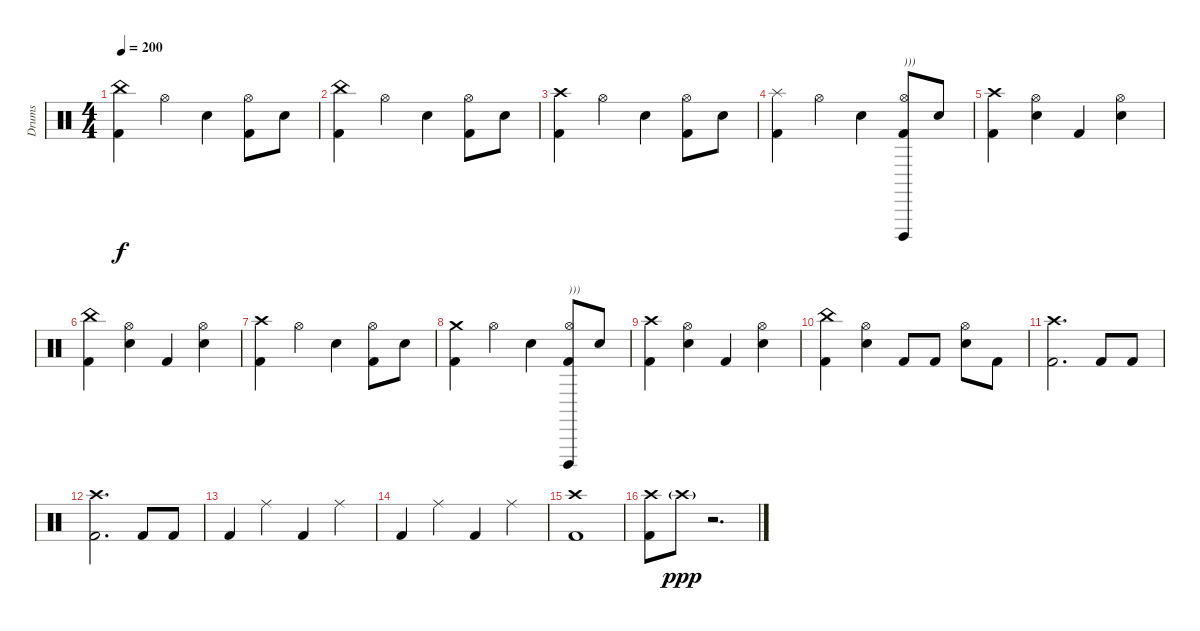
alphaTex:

\track ("Drums" "Drums") {instrument percussion}
\staff {score}
\articulation defaults
\ts (4 4)
\tempo 200
\clef neutral
\ks c
("China (hit)" "Kick (hit) 2").4{dy f} "Hi-Hat (open)".4 "Electric Snare (hit)".4 ("Hi-Hat (open)" "Kick (hit) 2").8 "Electric Snare (hit)".8 |
("China (hit)" "Kick (hit) 2").4 "Hi-Hat (open)".4 "Electric Snare (hit)".4 ("Hi-Hat (open)" "Kick (hit) 2").8 "Electric Snare (hit)".8 |
("Crash high (hit)" "Kick (hit) 2").4 "Hi-Hat (open)".4 "Electric Snare (hit)".4 ("Hi-Hat (open)" "Kick (hit) 2").8 "Electric Snare (hit)".8 |
("Splash (hit)" "Kick (hit) 2").4 "Hi-Hat (open)".4 "Electric Snare (hit)".4 ("Hi-Hat (open)" "Cuica (open)" "Kick (hit) 2").8{txt ")))"} "Electric Snare (hit)".8 |
("Crash high (hit)" "Kick (hit) 2").4 ("Hi-Hat (open)" "Electric Snare (hit)").4 "Kick (hit) 2".4 ("Hi-Hat (open)" "Electric Snare (hit)").4 |
("China (hit)" "Kick (hit) 2").4 ("Hi-Hat (open)" "Electric Snare (hit)").4 "Kick (hit) 2".4 ("Hi-Hat (open)" "Electric Snare (hit)").4 |
("Crash high (hit)" "Kick (hit) 2").4 "Hi-Hat (open)".4 "Electric Snare (hit)".4 ("Hi-Hat (open)" "Kick (hit) 2").8 "Electric Snare (hit)".8 |
("Crash medium (hit)" "Kick (hit) 2").4 "Hi-Hat (open)".4 "Electric Snare (hit)".4 ("Hi-Hat (open)" "Cuica (open)" "Kick (hit) 2").8{txt ")))"} "Electric Snare (hit)".8 |
("Crash high (hit)" "Kick (hit) 2").4 ("Hi-Hat (open)" "Electric Snare (hit)").4 "Kick (hit) 2".4 ("Hi-Hat (open)" "Electric Snare (hit)").4 |
("China (hit)" "Kick (hit) 2").4 ("Hi-Hat (open)" "Electric Snare (hit)").4 "Kick (hit) 2".8 "Kick (hit) 2".8 ("Hi-Hat (open)" "Electric Snare (hit)").8 "Kick (hit) 2".8 |
("Crash high (hit)" "Kick (hit) 2").2{d} "Kick (hit) 2".8 "Kick (hit) 2".8 |
("Crash high (hit)" "Kick (hit) 2").2{d} "Kick (hit) 2".8 "Kick (hit) 2".8 |
"Kick (hit) 2".4 "Ride (middle)".4 "Kick (hit) 2".4 "Ride (middle)".4 |
"Kick (hit) 2".4 "Ride (middle)".4 "Kick (hit) 2".4 "Ride (middle)".4 |
("Crash high (hit)" "Kick (hit) 2").1 |
("Crash high (hit)" "Kick (hit) 2").8 "Crash high (hit)"{g}.8{dy ppp} r.2{d}
